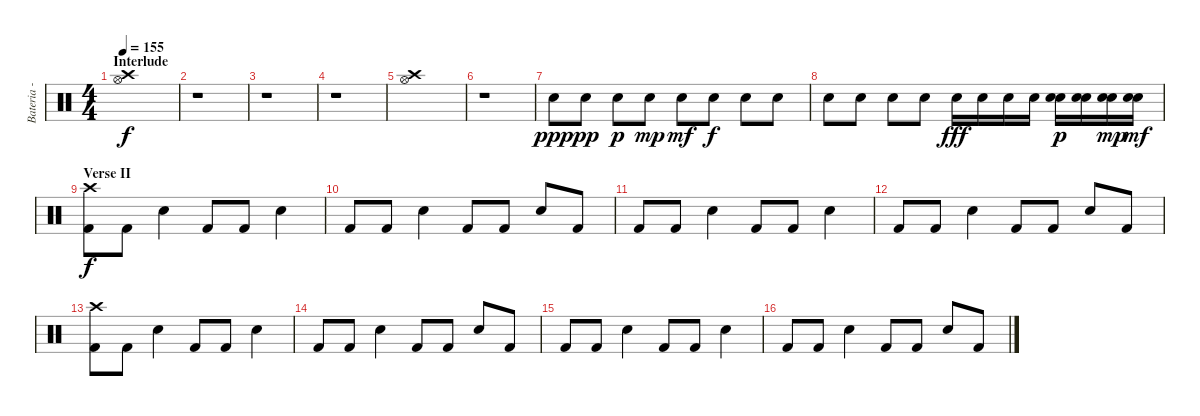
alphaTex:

\track ("Bateria - Larzon" "Bateria - ") {instrument percussion}
\staff {score}
\articulation defaults
\ts (4 4)
\section ("" "Interlude")
\tempo 155
\clef neutral
\ks c
("Crash high (hit)" "Hi-Hat (open)").1{dy f} |
r.1 |
r.1 |
r.1 |
("Crash high (hit)" "Hi-Hat (open)").1 |
r.1 |
"Snare (hit) 2".8{dy ppp} "Snare (hit) 2".8{dy pp} "Snare (hit) 2".8{dy p} "Snare (hit) 2".8{dy mp} "Snare (hit) 2".8{dy mf} "Snare (hit) 2".8{dy f} "Snare (hit) 2".8 "Snare (hit) 2".8 |
"Snare (hit) 2".8 "Snare (hit) 2".8 "Snare (hit) 2".8 "Snare (hit) 2".8 "Snare (hit) 2".16{dy fff} "Snare (hit) 2".16 "Snare (hit) 2".16 "Snare (hit) 2".16 ("Snare (hit) 2" "Electric Snare (hit)").16{dy p} ("Snare (hit) 2" "Electric Snare (hit)").16 ("Snare (hit) 2" "Electric Snare (hit)").16{dy mp} ("Snare (hit) 2" "Electric Snare (hit)").16{dy mf} |
\section ("" "Verse II")
("Kick (hit) 2" "Crash high (hit)").8{dy f} "Kick (hit) 2".8 "Snare (hit) 2".4 "Kick (hit) 2".8 "Kick (hit) 2".8 "Snare (hit) 2".4 |
"Kick (hit) 2".8 "Kick (hit) 2".8 "Snare (hit) 2".4 "Kick (hit) 2".8 "Kick (hit) 2".8 "Snare (hit) 2".8 "Kick (hit) 2".8 |
"Kick (hit) 2".8 "Kick (hit) 2".8 "Snare (hit) 2".4 "Kick (hit) 2".8 "Kick (hit) 2".8 "Snare (hit) 2".4 |
"Kick (hit) 2".8 "Kick (hit) 2".8 "Snare (hit) 2".4 "Kick (hit) 2".8 "Kick (hit) 2".8 "Snare (hit) 2".8 "Kick (hit) 2".8 |
("Kick (hit) 2" "Crash high (hit)").8 "Kick (hit) 2".8 "Snare (hit) 2".4 "Kick (hit) 2".8 "Kick (hit) 2".8 "Snare (hit) 2".4 |
"Kick (hit) 2".8 "Kick (hit) 2".8 "Snare (hit) 2".4 "Kick (hit) 2".8 "Kick (hit) 2".8 "Snare (hit) 2".8 "Kick (hit) 2".8 |
"Kick (hit) 2".8 "Kick (hit) 2".8 "Snare (hit) 2".4 "Kick (hit) 2".8 "Kick (hit) 2".8 "Snare (hit) 2".4 |
"Kick (hit) 2".8 "Kick (hit) 2".8 "Snare (hit) 2".4 "Kick (hit) 2".8 "Kick (hit) 2".8 "Snare (hit) 2".8 "Kick (hit) 2".8
